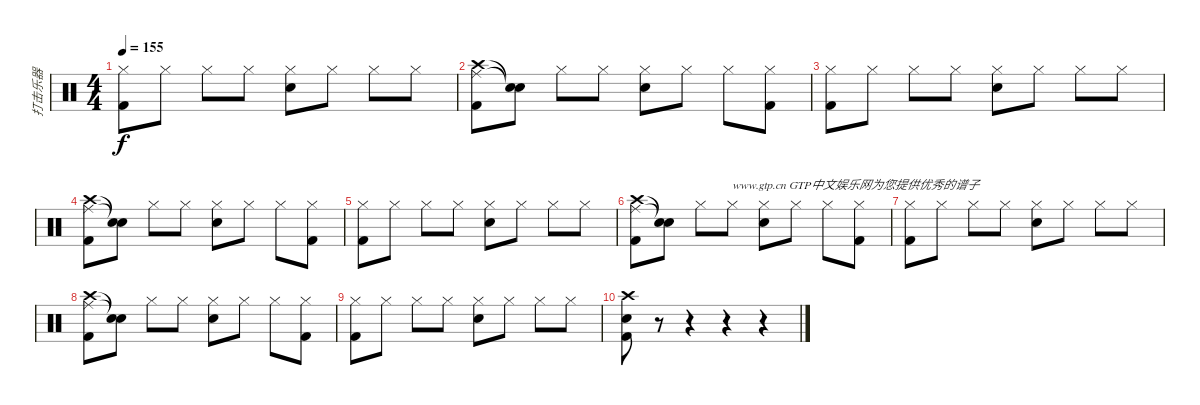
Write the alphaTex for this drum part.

\track ("打击乐器" "打击乐器") {instrument percussion}
\staff {score}
\articulation defaults
\ts (4 4)
\tempo 155
\clef neutral
\ks c
("Hi-Hat (closed)" "Kick (hit) 2").8{dy f} "Hi-Hat (closed)".8 "Hi-Hat (closed)".8 "Hi-Hat (closed)".8 ("Hi-Hat (closed)" "Snare (hit) 2").8 "Hi-Hat (closed)".8 "Hi-Hat (closed)".8 "Hi-Hat (closed)".8 |
("Crash high (hit)" "Ride (middle)" "Kick (hit) 2").8 ("Snare (hit)"{t} "Snare (hit)"{t}).8 "Hi-Hat (closed)".8 "Hi-Hat (closed)".8 ("Hi-Hat (closed)" "Snare (hit) 2").8 "Hi-Hat (closed)".8 "Hi-Hat (closed)".8 ("Hi-Hat (closed)" "Kick (hit) 2").8 |
("Hi-Hat (closed)" "Kick (hit) 2").8 "Hi-Hat (closed)".8 "Hi-Hat (closed)".8 "Hi-Hat (closed)".8 ("Hi-Hat (closed)" "Snare (hit) 2").8 "Hi-Hat (closed)".8 "Hi-Hat (closed)".8 "Hi-Hat (closed)".8 |
("Crash high (hit)" "Ride (middle)" "Kick (hit) 2").8 ("Snare (hit)"{t} "Snare (hit)"{t}).8 "Hi-Hat (closed)".8 "Hi-Hat (closed)".8 ("Hi-Hat (closed)" "Snare (hit) 2").8 "Hi-Hat (closed)".8 "Hi-Hat (closed)".8 ("Hi-Hat (closed)" "Kick (hit) 2").8 |
("Hi-Hat (closed)" "Kick (hit) 2").8 "Hi-Hat (closed)".8 "Hi-Hat (closed)".8 "Hi-Hat (closed)".8 ("Hi-Hat (closed)" "Snare (hit) 2").8 "Hi-Hat (closed)".8 "Hi-Hat (closed)".8 "Hi-Hat (closed)".8 |
("Crash high (hit)" "Ride (middle)" "Kick (hit) 2").8 ("Snare (hit)"{t} "Snare (hit)"{t}).8 "Hi-Hat (closed)".8 "Hi-Hat (closed)".8{txt "www.gtp.cn GTP中文娱乐网为您提供优秀的谱子"} ("Hi-Hat (closed)" "Snare (hit) 2").8 "Hi-Hat (closed)".8 "Hi-Hat (closed)".8 ("Hi-Hat (closed)" "Kick (hit) 2").8 |
("Hi-Hat (closed)" "Kick (hit) 2").8 "Hi-Hat (closed)".8 "Hi-Hat (closed)".8 "Hi-Hat (closed)".8 ("Hi-Hat (closed)" "Snare (hit) 2").8 "Hi-Hat (closed)".8 "Hi-Hat (closed)".8 "Hi-Hat (closed)".8 |
("Crash high (hit)" "Ride (middle)" "Kick (hit) 2").8 ("Snare (hit)"{t} "Snare (hit)"{t}).8 "Hi-Hat (closed)".8 "Hi-Hat (closed)".8 ("Hi-Hat (closed)" "Snare (hit) 2").8 "Hi-Hat (closed)".8 "Hi-Hat (closed)".8 ("Hi-Hat (closed)" "Kick (hit) 2").8 |
("Hi-Hat (closed)" "Kick (hit) 2").8 "Hi-Hat (closed)".8 "Hi-Hat (closed)".8 "Hi-Hat (closed)".8 ("Hi-Hat (closed)" "Snare (hit) 2").8 "Hi-Hat (closed)".8 "Hi-Hat (closed)".8 "Hi-Hat (closed)".8 |
("Crash high (hit)" "Snare (hit) 2" "Kick (hit) 2").8 r.8 r.4 r.4 r.4
